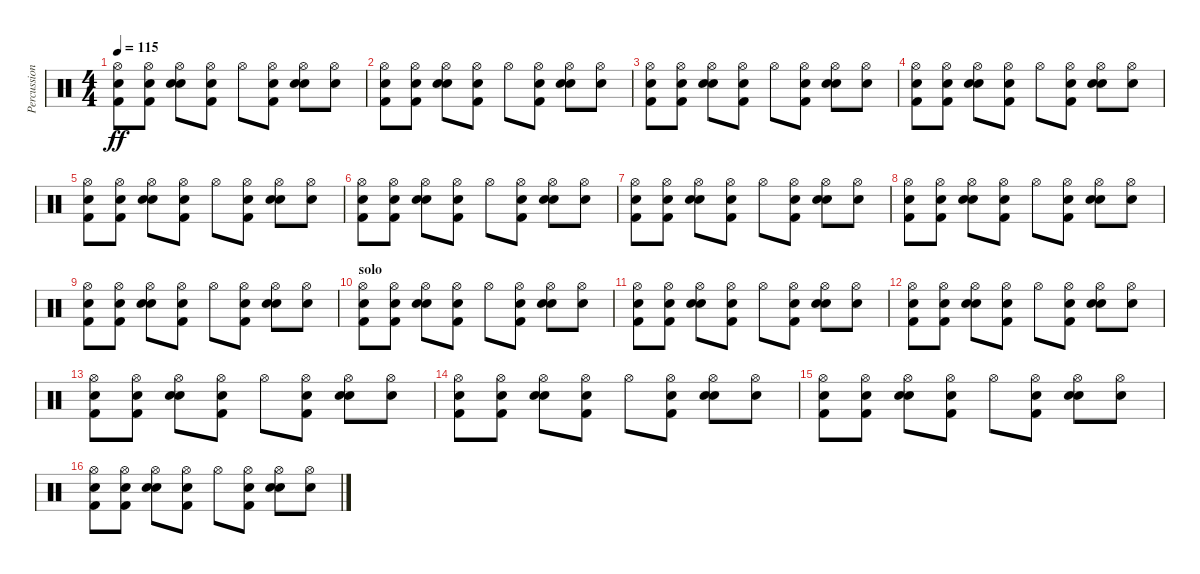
\track ("Percussions / hands" "Percussion") {instrument percussion}
\staff {score}
\articulation defaults
\ts (4 4)
\tempo 115
\clef neutral
\ks c
("Hi-Hat (open)" "Kick (hit) 2" "Hand Clap (hit)").8{dy ff} ("Hi-Hat (open)" "Kick (hit) 2" "Hand Clap (hit)").8 ("Hi-Hat (open)" "Electric Snare (hit)" "Hand Clap (hit)").8 ("Hi-Hat (open)" "Kick (hit) 2" "Hand Clap (hit)").8 "Hi-Hat (open)".8 ("Hi-Hat (open)" "Kick (hit) 2" "Hand Clap (hit)").8 ("Hi-Hat (open)" "Electric Snare (hit)" "Hand Clap (hit)").8 ("Hi-Hat (open)" "Hand Clap (hit)").8 |
("Hi-Hat (open)" "Kick (hit) 2" "Hand Clap (hit)").8 ("Hi-Hat (open)" "Kick (hit) 2" "Hand Clap (hit)").8 ("Hi-Hat (open)" "Electric Snare (hit)" "Hand Clap (hit)").8 ("Hi-Hat (open)" "Kick (hit) 2" "Hand Clap (hit)").8 "Hi-Hat (open)".8 ("Hi-Hat (open)" "Kick (hit) 2" "Hand Clap (hit)").8 ("Hi-Hat (open)" "Electric Snare (hit)" "Hand Clap (hit)").8 ("Hi-Hat (open)" "Hand Clap (hit)").8 |
("Hi-Hat (open)" "Kick (hit) 2" "Hand Clap (hit)").8 ("Hi-Hat (open)" "Kick (hit) 2" "Hand Clap (hit)").8 ("Hi-Hat (open)" "Electric Snare (hit)" "Hand Clap (hit)").8 ("Hi-Hat (open)" "Kick (hit) 2" "Hand Clap (hit)").8 "Hi-Hat (open)".8 ("Hi-Hat (open)" "Kick (hit) 2" "Hand Clap (hit)").8 ("Hi-Hat (open)" "Electric Snare (hit)" "Hand Clap (hit)").8 ("Hi-Hat (open)" "Hand Clap (hit)").8 |
("Hi-Hat (open)" "Kick (hit) 2" "Hand Clap (hit)").8 ("Hi-Hat (open)" "Kick (hit) 2" "Hand Clap (hit)").8 ("Hi-Hat (open)" "Electric Snare (hit)" "Hand Clap (hit)").8 ("Hi-Hat (open)" "Kick (hit) 2" "Hand Clap (hit)").8 "Hi-Hat (open)".8 ("Hi-Hat (open)" "Kick (hit) 2" "Hand Clap (hit)").8 ("Hi-Hat (open)" "Electric Snare (hit)" "Hand Clap (hit)").8 ("Hi-Hat (open)" "Hand Clap (hit)").8 |
("Hi-Hat (open)" "Kick (hit) 2" "Hand Clap (hit)").8 ("Hi-Hat (open)" "Kick (hit) 2" "Hand Clap (hit)").8 ("Hi-Hat (open)" "Electric Snare (hit)" "Hand Clap (hit)").8 ("Hi-Hat (open)" "Kick (hit) 2" "Hand Clap (hit)").8 "Hi-Hat (open)".8 ("Hi-Hat (open)" "Kick (hit) 2" "Hand Clap (hit)").8 ("Hi-Hat (open)" "Electric Snare (hit)" "Hand Clap (hit)").8 ("Hi-Hat (open)" "Hand Clap (hit)").8 |
("Hi-Hat (open)" "Kick (hit) 2" "Hand Clap (hit)").8 ("Hi-Hat (open)" "Kick (hit) 2" "Hand Clap (hit)").8 ("Hi-Hat (open)" "Electric Snare (hit)" "Hand Clap (hit)").8 ("Hi-Hat (open)" "Kick (hit) 2" "Hand Clap (hit)").8 "Hi-Hat (open)".8 ("Hi-Hat (open)" "Kick (hit) 2" "Hand Clap (hit)").8 ("Hi-Hat (open)" "Electric Snare (hit)" "Hand Clap (hit)").8 ("Hi-Hat (open)" "Hand Clap (hit)").8 |
("Hi-Hat (open)" "Kick (hit) 2" "Hand Clap (hit)").8 ("Hi-Hat (open)" "Kick (hit) 2" "Hand Clap (hit)").8 ("Hi-Hat (open)" "Electric Snare (hit)" "Hand Clap (hit)").8 ("Hi-Hat (open)" "Kick (hit) 2" "Hand Clap (hit)").8 "Hi-Hat (open)".8 ("Hi-Hat (open)" "Kick (hit) 2" "Hand Clap (hit)").8 ("Hi-Hat (open)" "Electric Snare (hit)" "Hand Clap (hit)").8 ("Hi-Hat (open)" "Hand Clap (hit)").8 |
("Hi-Hat (open)" "Kick (hit) 2" "Hand Clap (hit)").8 ("Hi-Hat (open)" "Kick (hit) 2" "Hand Clap (hit)").8 ("Hi-Hat (open)" "Electric Snare (hit)" "Hand Clap (hit)").8 ("Hi-Hat (open)" "Kick (hit) 2" "Hand Clap (hit)").8 "Hi-Hat (open)".8 ("Hi-Hat (open)" "Kick (hit) 2" "Hand Clap (hit)").8 ("Hi-Hat (open)" "Electric Snare (hit)" "Hand Clap (hit)").8 ("Hi-Hat (open)" "Hand Clap (hit)").8 |
("Hi-Hat (open)" "Kick (hit) 2" "Hand Clap (hit)").8 ("Hi-Hat (open)" "Kick (hit) 2" "Hand Clap (hit)").8 ("Hi-Hat (open)" "Electric Snare (hit)" "Hand Clap (hit)").8 ("Hi-Hat (open)" "Kick (hit) 2" "Hand Clap (hit)").8 "Hi-Hat (open)".8 ("Hi-Hat (open)" "Kick (hit) 2" "Hand Clap (hit)").8 ("Hi-Hat (open)" "Electric Snare (hit)" "Hand Clap (hit)").8 ("Hi-Hat (open)" "Hand Clap (hit)").8 |
\section ("" "solo")
("Hi-Hat (open)" "Kick (hit) 2" "Hand Clap (hit)").8 ("Hi-Hat (open)" "Kick (hit) 2" "Hand Clap (hit)").8 ("Hi-Hat (open)" "Electric Snare (hit)" "Hand Clap (hit)").8 ("Hi-Hat (open)" "Kick (hit) 2" "Hand Clap (hit)").8 "Hi-Hat (open)".8 ("Hi-Hat (open)" "Kick (hit) 2" "Hand Clap (hit)").8 ("Hi-Hat (open)" "Electric Snare (hit)" "Hand Clap (hit)").8 ("Hi-Hat (open)" "Hand Clap (hit)").8 |
("Hi-Hat (open)" "Kick (hit) 2" "Hand Clap (hit)").8 ("Hi-Hat (open)" "Kick (hit) 2" "Hand Clap (hit)").8 ("Hi-Hat (open)" "Electric Snare (hit)" "Hand Clap (hit)").8 ("Hi-Hat (open)" "Kick (hit) 2" "Hand Clap (hit)").8 "Hi-Hat (open)".8 ("Hi-Hat (open)" "Kick (hit) 2" "Hand Clap (hit)").8 ("Hi-Hat (open)" "Electric Snare (hit)" "Hand Clap (hit)").8 ("Hi-Hat (open)" "Hand Clap (hit)").8 |
("Hi-Hat (open)" "Kick (hit) 2" "Hand Clap (hit)").8 ("Hi-Hat (open)" "Kick (hit) 2" "Hand Clap (hit)").8 ("Hi-Hat (open)" "Electric Snare (hit)" "Hand Clap (hit)").8 ("Hi-Hat (open)" "Kick (hit) 2" "Hand Clap (hit)").8 "Hi-Hat (open)".8 ("Hi-Hat (open)" "Kick (hit) 2" "Hand Clap (hit)").8 ("Hi-Hat (open)" "Electric Snare (hit)" "Hand Clap (hit)").8 ("Hi-Hat (open)" "Hand Clap (hit)").8 |
("Hi-Hat (open)" "Kick (hit) 2" "Hand Clap (hit)").8 ("Hi-Hat (open)" "Kick (hit) 2" "Hand Clap (hit)").8 ("Hi-Hat (open)" "Electric Snare (hit)" "Hand Clap (hit)").8 ("Hi-Hat (open)" "Kick (hit) 2" "Hand Clap (hit)").8 "Hi-Hat (open)".8 ("Hi-Hat (open)" "Kick (hit) 2" "Hand Clap (hit)").8 ("Hi-Hat (open)" "Electric Snare (hit)" "Hand Clap (hit)").8 ("Hi-Hat (open)" "Hand Clap (hit)").8 |
("Hi-Hat (open)" "Kick (hit) 2" "Hand Clap (hit)").8 ("Hi-Hat (open)" "Kick (hit) 2" "Hand Clap (hit)").8 ("Hi-Hat (open)" "Electric Snare (hit)" "Hand Clap (hit)").8 ("Hi-Hat (open)" "Kick (hit) 2" "Hand Clap (hit)").8 "Hi-Hat (open)".8 ("Hi-Hat (open)" "Kick (hit) 2" "Hand Clap (hit)").8 ("Hi-Hat (open)" "Electric Snare (hit)" "Hand Clap (hit)").8 ("Hi-Hat (open)" "Hand Clap (hit)").8 |
("Hi-Hat (open)" "Kick (hit) 2" "Hand Clap (hit)").8 ("Hi-Hat (open)" "Kick (hit) 2" "Hand Clap (hit)").8 ("Hi-Hat (open)" "Electric Snare (hit)" "Hand Clap (hit)").8 ("Hi-Hat (open)" "Kick (hit) 2" "Hand Clap (hit)").8 "Hi-Hat (open)".8 ("Hi-Hat (open)" "Kick (hit) 2" "Hand Clap (hit)").8 ("Hi-Hat (open)" "Electric Snare (hit)" "Hand Clap (hit)").8 ("Hi-Hat (open)" "Hand Clap (hit)").8 |
("Hi-Hat (open)" "Kick (hit) 2" "Hand Clap (hit)").8 ("Hi-Hat (open)" "Kick (hit) 2" "Hand Clap (hit)").8 ("Hi-Hat (open)" "Electric Snare (hit)" "Hand Clap (hit)").8 ("Hi-Hat (open)" "Kick (hit) 2" "Hand Clap (hit)").8 "Hi-Hat (open)".8 ("Hi-Hat (open)" "Kick (hit) 2" "Hand Clap (hit)").8 ("Hi-Hat (open)" "Electric Snare (hit)" "Hand Clap (hit)").8 ("Hi-Hat (open)" "Hand Clap (hit)").8
